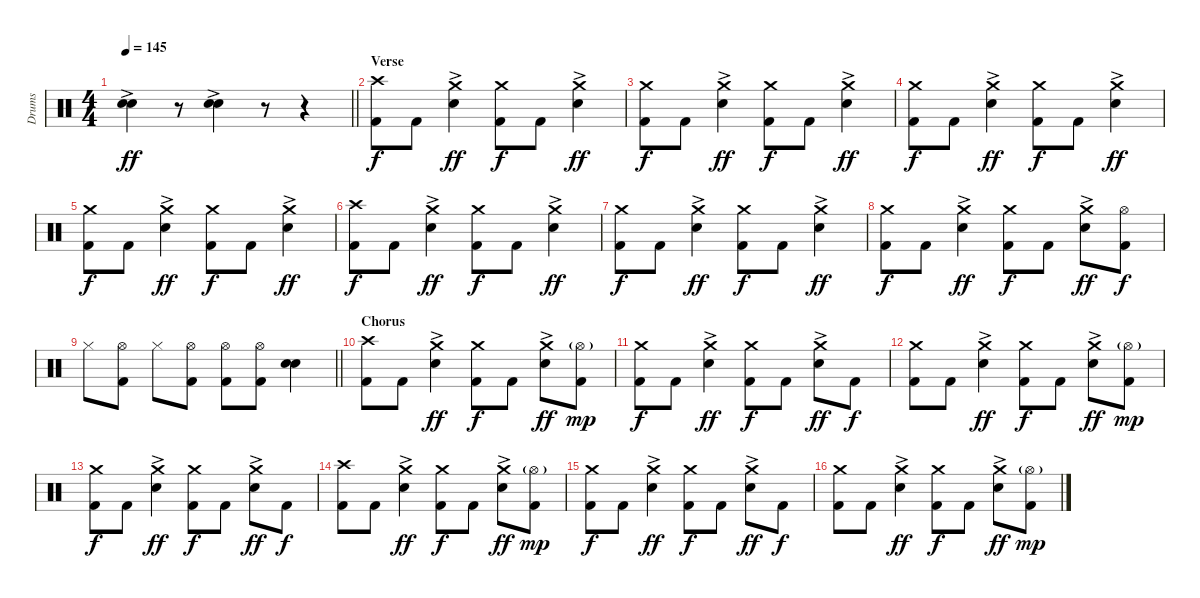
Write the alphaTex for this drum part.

\track ("Drums" "Drums") {instrument percussion}
\staff {score}
\articulation defaults
\ts (4 4)
\tempo 145
\clef neutral
\barLineRight lightlight
\ks c
("Electric Snare (hit)"{ac} "Electric Snare (hit)"{ac}).4{bu 120 dy ff} r.8 ("Electric Snare (hit)"{ac} "Electric Snare (hit)"{ac}).4{bu 120} r.8 r.4 |
\section ("" "Verse")
("Crash high (hit)" "Kick (hit) 2").8{dy f} "Kick (hit) 2".8 ("Crash medium (hit)" "Electric Snare (hit)"{ac}).4{dy ff} ("Crash medium (hit)" "Kick (hit) 2").8{dy f} "Kick (hit) 2".8 ("Crash medium (hit)" "Electric Snare (hit)"{ac}).4{dy ff} |
("Crash medium (hit)" "Kick (hit) 2").8{dy f} "Kick (hit) 2".8 ("Crash medium (hit)" "Electric Snare (hit)"{ac}).4{dy ff} ("Crash medium (hit)" "Kick (hit) 2").8{dy f} "Kick (hit) 2".8 ("Crash medium (hit)" "Electric Snare (hit)"{ac}).4{dy ff} |
("Crash medium (hit)" "Kick (hit) 2").8{dy f} "Kick (hit) 2".8 ("Crash medium (hit)" "Electric Snare (hit)"{ac}).4{dy ff} ("Crash medium (hit)" "Kick (hit) 2").8{dy f} "Kick (hit) 2".8 ("Crash medium (hit)" "Electric Snare (hit)"{ac}).4{dy ff} |
("Crash medium (hit)" "Kick (hit) 2").8{dy f} "Kick (hit) 2".8 ("Crash medium (hit)" "Electric Snare (hit)"{ac}).4{dy ff} ("Crash medium (hit)" "Kick (hit) 2").8{dy f} "Kick (hit) 2".8 ("Crash medium (hit)" "Electric Snare (hit)"{ac}).4{dy ff} |
("Crash high (hit)" "Kick (hit) 2").8{dy f} "Kick (hit) 2".8 ("Crash medium (hit)" "Electric Snare (hit)"{ac}).4{dy ff} ("Crash medium (hit)" "Kick (hit) 2").8{dy f} "Kick (hit) 2".8 ("Crash medium (hit)" "Electric Snare (hit)"{ac}).4{dy ff} |
("Crash medium (hit)" "Kick (hit) 2").8{dy f} "Kick (hit) 2".8 ("Crash medium (hit)" "Electric Snare (hit)"{ac}).4{dy ff} ("Crash medium (hit)" "Kick (hit) 2").8{dy f} "Kick (hit) 2".8 ("Crash medium (hit)" "Electric Snare (hit)"{ac}).4{dy ff} |
("Crash medium (hit)" "Kick (hit) 2").8{dy f} "Kick (hit) 2".8 ("Crash medium (hit)" "Electric Snare (hit)"{ac}).4{dy ff} ("Crash medium (hit)" "Kick (hit) 2").8{dy f} "Kick (hit) 2".8 ("Crash medium (hit)" "Electric Snare (hit)"{ac}).8{dy ff} ("Hi-Hat (open)" "Kick (hit) 2").8{dy f} |
\barLineRight lightlight "Hi-Hat (closed)".8
("Hi-Hat (open)" "Kick (hit) 2").8 "Hi-Hat (closed)".8 ("Hi-Hat (open)" "Kick (hit) 2").8 ("Hi-Hat (open)" "Kick (hit) 2").8 ("Hi-Hat (open)" "Kick (hit) 2").8 ("Electric Snare (hit)" "Electric Snare (hit)").4{bu 120} |
\section ("" "Chorus")
("Crash high (hit)" "Kick (hit) 2").8 "Kick (hit) 2".8 ("Crash medium (hit)" "Electric Snare (hit)"{ac}).4{dy ff} ("Crash medium (hit)" "Kick (hit) 2").8{dy f} "Kick (hit) 2".8 ("Crash medium (hit)" "Electric Snare (hit)"{ac}).8{dy ff} ("Hi-Hat (open)"{g} "Kick (hit) 2").8{dy mp} |
("Crash medium (hit)" "Kick (hit) 2").8{dy f} "Kick (hit) 2".8 ("Crash medium (hit)" "Electric Snare (hit)"{ac}).4{dy ff} ("Crash medium (hit)" "Kick (hit) 2").8{dy f} "Kick (hit) 2".8 ("Crash medium (hit)" "Electric Snare (hit)"{ac}).8{dy ff} "Kick (hit) 2".8{dy f} |
("Crash medium (hit)" "Kick (hit) 2").8 "Kick (hit) 2".8 ("Crash medium (hit)" "Electric Snare (hit)"{ac}).4{dy ff} ("Crash medium (hit)" "Kick (hit) 2").8{dy f} "Kick (hit) 2".8 ("Crash medium (hit)" "Electric Snare (hit)"{ac}).8{dy ff} ("Hi-Hat (open)"{g} "Kick (hit) 2").8{dy mp} |
("Crash medium (hit)" "Kick (hit) 2").8{dy f} "Kick (hit) 2".8 ("Crash medium (hit)" "Electric Snare (hit)"{ac}).4{dy ff} ("Crash medium (hit)" "Kick (hit) 2").8{dy f} "Kick (hit) 2".8 ("Crash medium (hit)" "Electric Snare (hit)"{ac}).8{dy ff} "Kick (hit) 2".8{dy f} |
("Crash high (hit)" "Kick (hit) 2").8 "Kick (hit) 2".8 ("Crash medium (hit)" "Electric Snare (hit)"{ac}).4{dy ff} ("Crash medium (hit)" "Kick (hit) 2").8{dy f} "Kick (hit) 2".8 ("Crash medium (hit)" "Electric Snare (hit)"{ac}).8{dy ff} ("Hi-Hat (open)"{g} "Kick (hit) 2").8{dy mp} |
("Crash medium (hit)" "Kick (hit) 2").8{dy f} "Kick (hit) 2".8 ("Crash medium (hit)" "Electric Snare (hit)"{ac}).4{dy ff} ("Crash medium (hit)" "Kick (hit) 2").8{dy f} "Kick (hit) 2".8 ("Crash medium (hit)" "Electric Snare (hit)"{ac}).8{dy ff} "Kick (hit) 2".8{dy f} |
("Crash medium (hit)" "Kick (hit) 2").8 "Kick (hit) 2".8 ("Crash medium (hit)" "Electric Snare (hit)"{ac}).4{dy ff} ("Crash medium (hit)" "Kick (hit) 2").8{dy f} "Kick (hit) 2".8 ("Crash medium (hit)" "Electric Snare (hit)"{ac}).8{dy ff} ("Hi-Hat (open)"{g} "Kick (hit) 2").8{dy mp}
